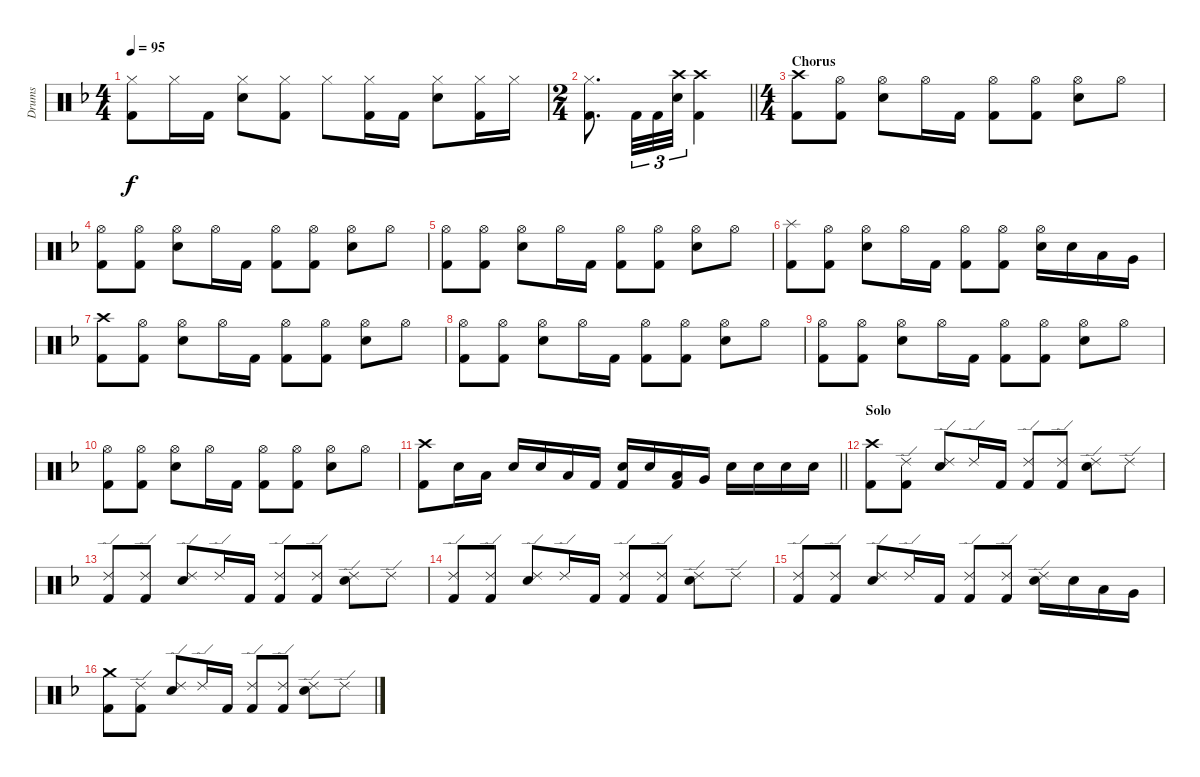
\track ("Drums" "Drums") {instrument percussion}
\staff {score}
\articulation defaults
\ts (4 4)
\tempo 95
\clef neutral
\ks f
("Hi-Hat (closed)" "Kick (hit) 2").8{dy f} "Hi-Hat (closed)".16 "Kick (hit) 2".16 ("Hi-Hat (closed)" "Electric Snare (hit)").8 ("Hi-Hat (closed)" "Kick (hit) 2").8 "Hi-Hat (closed)".8 ("Hi-Hat (closed)" "Kick (hit) 2").16 "Kick (hit) 2".16 ("Hi-Hat (closed)" "Electric Snare (hit)").8 ("Hi-Hat (closed)" "Kick (hit) 2").16 "Hi-Hat (closed)".16 |
\ts (2 4)
\barLineRight lightlight
("Hi-Hat (closed)" "Kick (hit) 2").8{d} "Kick (hit) 2".32{tu (3 2)} "Kick (hit) 2".32{tu (3 2)} ("Crash high (hit)" "Electric Snare (hit)").32{tu (3 2)} ("Crash high (hit)" "Kick (hit) 2").4 |
\ts (4 4)
\section ("" "Chorus")
("Crash high (hit)" "Kick (hit) 2").8 ("Hi-Hat (open)" "Kick (hit) 2").8 ("Hi-Hat (open)" "Electric Snare (hit)").8 "Hi-Hat (open)".16 "Kick (hit) 2".16 ("Hi-Hat (open)" "Kick (hit) 2").8 ("Hi-Hat (open)" "Kick (hit) 2").8 ("Hi-Hat (open)" "Electric Snare (hit)").8 "Hi-Hat (open)".8 |
("Hi-Hat (open)" "Kick (hit) 2").8 ("Hi-Hat (open)" "Kick (hit) 2").8 ("Hi-Hat (open)" "Electric Snare (hit)").8 "Hi-Hat (open)".16 "Kick (hit) 2".16 ("Hi-Hat (open)" "Kick (hit) 2").8 ("Hi-Hat (open)" "Kick (hit) 2").8 ("Hi-Hat (open)" "Electric Snare (hit)").8 "Hi-Hat (open)".8 |
("Hi-Hat (open)" "Kick (hit) 2").8 ("Hi-Hat (open)" "Kick (hit) 2").8 ("Hi-Hat (open)" "Electric Snare (hit)").8 "Hi-Hat (open)".16 "Kick (hit) 2".16 ("Hi-Hat (open)" "Kick (hit) 2").8 ("Hi-Hat (open)" "Kick (hit) 2").8 ("Hi-Hat (open)" "Electric Snare (hit)").8 "Hi-Hat (open)".8 |
("Splash (hit)" "Kick (hit) 2").8 ("Hi-Hat (open)" "Kick (hit) 2").8 ("Hi-Hat (open)" "Electric Snare (hit)").8 "Hi-Hat (open)".16 "Kick (hit) 2".16 ("Hi-Hat (open)" "Kick (hit) 2").8 ("Hi-Hat (open)" "Kick (hit) 2").8 ("Hi-Hat (open)" "Electric Snare (hit)").16 "Electric Snare (hit)".16 "Low Tom (hit)".16 "Very Low Tom (hit)".16 |
("Crash high (hit)" "Kick (hit) 2").8 ("Hi-Hat (open)" "Kick (hit) 2").8 ("Hi-Hat (open)" "Electric Snare (hit)").8 "Hi-Hat (open)".16 "Kick (hit) 2".16 ("Hi-Hat (open)" "Kick (hit) 2").8 ("Hi-Hat (open)" "Kick (hit) 2").8 ("Hi-Hat (open)" "Electric Snare (hit)").8 "Hi-Hat (open)".8 |
("Hi-Hat (open)" "Kick (hit) 2").8 ("Hi-Hat (open)" "Kick (hit) 2").8 ("Hi-Hat (open)" "Electric Snare (hit)").8 "Hi-Hat (open)".16 "Kick (hit) 2".16 ("Hi-Hat (open)" "Kick (hit) 2").8 ("Hi-Hat (open)" "Kick (hit) 2").8 ("Hi-Hat (open)" "Electric Snare (hit)").8 "Hi-Hat (open)".8 |
("Hi-Hat (open)" "Kick (hit) 2").8 ("Hi-Hat (open)" "Kick (hit) 2").8 ("Hi-Hat (open)" "Electric Snare (hit)").8 "Hi-Hat (open)".16 "Kick (hit) 2".16 ("Hi-Hat (open)" "Kick (hit) 2").8 ("Hi-Hat (open)" "Kick (hit) 2").8 ("Hi-Hat (open)" "Electric Snare (hit)").8 "Hi-Hat (open)".8 |
("Hi-Hat (open)" "Kick (hit) 2").8 ("Hi-Hat (open)" "Kick (hit) 2").8 ("Hi-Hat (open)" "Electric Snare (hit)").8 "Hi-Hat (open)".16 "Kick (hit) 2".16 ("Hi-Hat (open)" "Kick (hit) 2").8 ("Hi-Hat (open)" "Kick (hit) 2").8 ("Hi-Hat (open)" "Electric Snare (hit)").8 "Hi-Hat (open)".8 |
\barLineRight lightlight
("Crash high (hit)" "Kick (hit) 2").8 "Electric Snare (hit)".16 "Low Tom (hit)".16 "Electric Snare (hit)".16 "Electric Snare (hit)".16 "Low Tom (hit)".16 "Kick (hit) 2".16 ("Electric Snare (hit)" "Kick (hit) 2").16 "Electric Snare (hit)".16 ("Low Tom (hit)" "Kick (hit) 2").16 "Very Low Tom (hit)".16 "Electric Snare (hit)".16 "Electric Snare (hit)".16 "Electric Snare (hit)".16 "Electric Snare (hit)".16 |
\section ("" "Solo")
("Crash high (hit)" "Kick (hit) 2").8 ("Ride (edge) 2" "Kick (hit) 2").8 ("Ride (edge) 2" "Electric Snare (hit)").8 "Ride (edge) 2".16 "Kick (hit) 2".16 ("Ride (edge) 2" "Kick (hit) 2").8 ("Ride (edge) 2" "Kick (hit) 2").8 ("Ride (edge) 2" "Electric Snare (hit)").8 "Ride (edge) 2".8 |
("Ride (edge) 2" "Kick (hit) 2").8 ("Ride (edge) 2" "Kick (hit) 2").8 ("Ride (edge) 2" "Electric Snare (hit)").8 "Ride (edge) 2".16 "Kick (hit) 2".16 ("Ride (edge) 2" "Kick (hit) 2").8 ("Ride (edge) 2" "Kick (hit) 2").8 ("Ride (edge) 2" "Electric Snare (hit)").8 "Ride (edge) 2".8 |
("Ride (edge) 2" "Kick (hit) 2").8 ("Ride (edge) 2" "Kick (hit) 2").8 ("Ride (edge) 2" "Electric Snare (hit)").8 "Ride (edge) 2".16 "Kick (hit) 2".16 ("Ride (edge) 2" "Kick (hit) 2").8 ("Ride (edge) 2" "Kick (hit) 2").8 ("Ride (edge) 2" "Electric Snare (hit)").8 "Ride (edge) 2".8 |
("Ride (edge) 2" "Kick (hit) 2").8 ("Ride (edge) 2" "Kick (hit) 2").8 ("Ride (edge) 2" "Electric Snare (hit)").8 "Ride (edge) 2".16 "Kick (hit) 2".16 ("Ride (edge) 2" "Kick (hit) 2").8 ("Ride (edge) 2" "Kick (hit) 2").8 ("Ride (edge) 2" "Electric Snare (hit)").16 "Electric Snare (hit)".16 "Low Tom (hit)".16 "Very Low Tom (hit)".16 |
("Crash medium (hit)" "Kick (hit) 2").8 ("Ride (edge) 2" "Kick (hit) 2").8 ("Ride (edge) 2" "Electric Snare (hit)").8 "Ride (edge) 2".16 "Kick (hit) 2".16 ("Ride (edge) 2" "Kick (hit) 2").8 ("Ride (edge) 2" "Kick (hit) 2").8 ("Ride (edge) 2" "Electric Snare (hit)").8 "Ride (edge) 2".8
